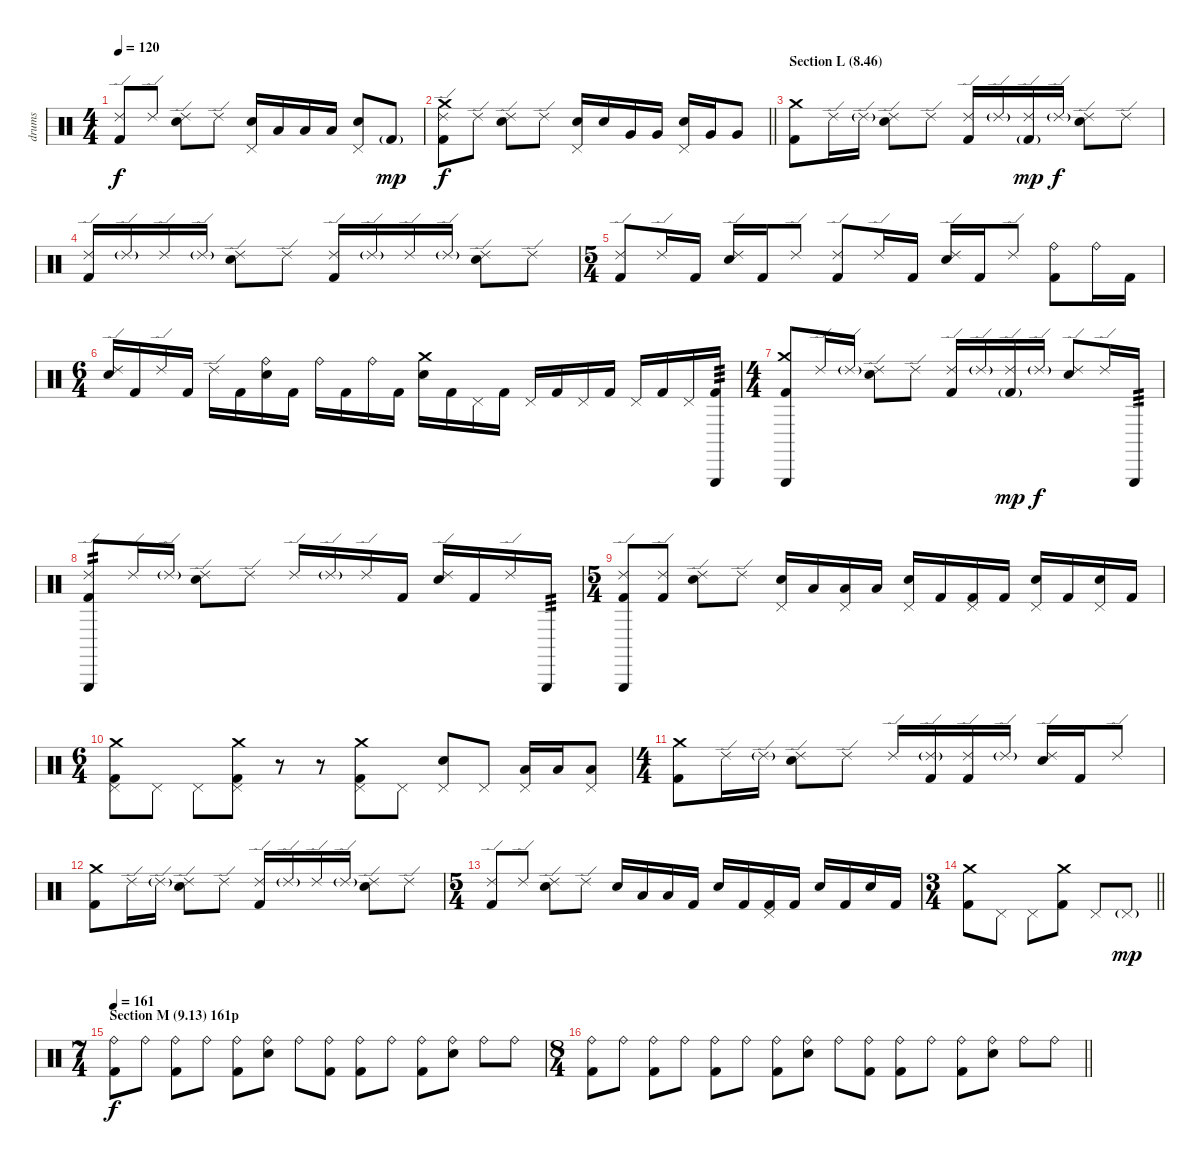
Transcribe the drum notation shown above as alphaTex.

\track ("drums" "drums") {instrument percussion}
\staff {score}
\articulation defaults
\ts (4 4)
\tempo 120
\clef neutral
\ks c
("Ride (edge) 2" "Kick (hit) 2").8{dy f} "Ride (edge) 2".8 ("Ride (edge) 2" "Electric Snare (hit)").8 "Ride (edge) 2".8 ("Pedal Hi-Hat (hit)" "Electric Snare (hit)").16 "Low Tom (hit)".16 "Low Tom (hit)".16 "Low Tom (hit)".16 ("Pedal Hi-Hat (hit)" "Electric Snare (hit)").8 "Kick (hit) 2"{g}.8{dy mp} |
\barLineRight lightlight
("Ride (edge) 2" "Crash medium (hit)" "Kick (hit) 2").8{dy f} "Ride (edge) 2".8 ("Ride (edge) 2" "Electric Snare (hit)").8 "Ride (edge) 2".8 ("Pedal Hi-Hat (hit)" "Electric Snare (hit)").16 "Electric Snare (hit)".16 "Very Low Tom (hit)".16 "Very Low Tom (hit)".16 ("Pedal Hi-Hat (hit)" "Electric Snare (hit)").16 "Very Low Tom (hit)".16 "Very Low Tom (hit)".8 |
\section ("" "Section L (8.46)")
("Crash medium (hit)" "Kick (hit) 2").8 "Ride (edge) 2".16 "Ride (edge) 2"{g}.16 ("Ride (edge) 2" "Electric Snare (hit)").8 "Ride (edge) 2".8 ("Ride (edge) 2" "Kick (hit) 2").16 "Ride (edge) 2"{g}.16 ("Ride (edge) 2" "Kick (hit) 2"{g}).16{dy mp} "Ride (edge) 2"{g}.16{dy f} ("Ride (edge) 2" "Electric Snare (hit)").8 "Ride (edge) 2".8 |
("Ride (edge) 2" "Kick (hit) 2").16 "Ride (edge) 2"{g}.16 "Ride (edge) 2".16 "Ride (edge) 2"{g}.16 ("Ride (edge) 2" "Electric Snare (hit)").8 "Ride (edge) 2".8 ("Ride (edge) 2" "Kick (hit) 2").16 "Ride (edge) 2"{g}.16 "Ride (edge) 2".16 "Ride (edge) 2"{g}.16 ("Ride (edge) 2" "Electric Snare (hit)").8 "Ride (edge) 2".8 |
\ts (5 4)
("Ride (edge) 2" "Kick (hit) 2").8 "Ride (edge) 2".16 "Kick (hit) 2".16 ("Ride (edge) 2" "Electric Snare (hit)").16 "Kick (hit) 2".16 "Ride (edge) 2".8 ("Ride (edge) 2" "Kick (hit) 2").8 "Ride (edge) 2".16 "Kick (hit) 2".16 ("Ride (edge) 2" "Electric Snare (hit)").16 "Kick (hit) 2".16 "Ride (edge) 2".8 ("Ride (bell)" "Kick (hit) 2").8 "Ride (bell)".16 "Kick (hit) 2".16 |
\ts (6 4)
("Ride (edge) 2" "Electric Snare (hit)").16 "Kick (hit) 2".16 "Ride (edge) 2".16 "Kick (hit) 2".16 "Ride (edge) 2".16 "Kick (hit) 2".16 ("Ride (bell)" "Electric Snare (hit)").16 "Kick (hit) 2".16 "Ride (bell)".16 "Kick (hit) 2".16 "Ride (bell)".16 "Kick (hit) 2".16 ("Crash medium (hit)" "Electric Snare (hit)").16 "Kick (hit) 2".16 "Pedal Hi-Hat (hit)".16 "Kick (hit) 2".16 "Pedal Hi-Hat (hit)".16 "Kick (hit) 2".16 "Pedal Hi-Hat (hit)".16 "Kick (hit) 2".16 "Pedal Hi-Hat (hit)".16 "Kick (hit) 2".16 "Pedal Hi-Hat (hit)".16 ("Triangle (hit)" "Kick (hit) 2").16{tp 3} |
\ts (4 4)
("Crash medium (hit)" "Triangle (hit)" "Kick (hit) 2").8 "Ride (edge) 2".16 "Ride (edge) 2"{g}.16 ("Ride (edge) 2" "Electric Snare (hit)").8 "Ride (edge) 2".8 ("Ride (edge) 2" "Kick (hit) 2").16 "Ride (edge) 2"{g}.16 ("Ride (edge) 2" "Kick (hit) 2"{g}).16{dy mp} "Ride (edge) 2"{g}.16{dy f} ("Ride (edge) 2" "Electric Snare (hit)").8 "Ride (edge) 2".16 "Triangle (hit)".16{tp 3} |
("Ride (edge) 2" "Triangle (hit)" "Kick (hit) 2").8{tp 2} "Ride (edge) 2".16 "Ride (edge) 2"{g}.16 ("Ride (edge) 2" "Electric Snare (hit)").8 "Ride (edge) 2".8 "Ride (edge) 2".16 "Ride (edge) 2"{g}.16 "Ride (edge) 2".16 "Kick (hit) 2".16 ("Ride (edge) 2" "Electric Snare (hit)").16 "Kick (hit) 2".16 "Ride (edge) 2".16 "Triangle (hit)".16{tp 3} |
\ts (5 4)
("Ride (edge) 2" "Triangle (hit)" "Kick (hit) 2").8 ("Ride (edge) 2" "Kick (hit) 2").8 ("Ride (edge) 2" "Electric Snare (hit)").8 "Ride (edge) 2".8 ("Pedal Hi-Hat (hit)" "Electric Snare (hit)").16 "Low Tom (hit)".16 ("Pedal Hi-Hat (hit)" "Low Tom (hit)").16 "Low Tom (hit)".16 ("Pedal Hi-Hat (hit)" "Electric Snare (hit)").16 "Kick (hit) 2".16 ("Pedal Hi-Hat (hit)" "Kick (hit) 2").16 "Kick (hit) 2".16 ("Pedal Hi-Hat (hit)" "Electric Snare (hit)").16 "Kick (hit) 2".16 ("Pedal Hi-Hat (hit)" "Electric Snare (hit)").16 "Kick (hit) 2".16 |
\ts (6 4)
("Pedal Hi-Hat (hit)" "Crash medium (hit)" "Kick (hit) 2").8 "Pedal Hi-Hat (hit)".8 "Pedal Hi-Hat (hit)".8 ("Pedal Hi-Hat (hit)" "Crash medium (hit)" "Kick (hit) 2").8 r.8 r.8 ("Pedal Hi-Hat (hit)" "Crash medium (hit)" "Kick (hit) 2").8 "Pedal Hi-Hat (hit)".8 ("Pedal Hi-Hat (hit)" "Electric Snare (hit)").8 "Pedal Hi-Hat (hit)".8 ("Pedal Hi-Hat (hit)" "Low Tom (hit)").16 "Low Tom (hit)".16 ("Pedal Hi-Hat (hit)" "Low Tom (hit)").8 |
\ts (4 4)
("Crash medium (hit)" "Kick (hit) 2").8 "Ride (edge) 2".16 "Ride (edge) 2"{g}.16 ("Ride (edge) 2" "Electric Snare (hit)").8 "Ride (edge) 2".8 "Ride (edge) 2".16 ("Ride (edge) 2"{g} "Kick (hit) 2").16 ("Ride (edge) 2" "Kick (hit) 2").16 "Ride (edge) 2"{g}.16 ("Ride (edge) 2" "Electric Snare (hit)").16 "Kick (hit) 2".16 "Ride (edge) 2".8 |
("Crash medium (hit)" "Kick (hit) 2").8 "Ride (edge) 2".16 "Ride (edge) 2"{g}.16 ("Ride (edge) 2" "Electric Snare (hit)").8 "Ride (edge) 2".8 ("Ride (edge) 2" "Kick (hit) 2").16 "Ride (edge) 2"{g}.16 "Ride (edge) 2".16 "Ride (edge) 2"{g}.16 ("Ride (edge) 2" "Electric Snare (hit)").8 "Ride (edge) 2".8 |
\ts (5 4)
("Ride (edge) 2" "Kick (hit) 2").8 "Ride (edge) 2".8 ("Ride (edge) 2" "Electric Snare (hit)").8 "Ride (edge) 2".8 "Electric Snare (hit)".16 "Low Tom (hit)".16 "Low Tom (hit)".16 "Kick (hit) 2".16 "Electric Snare (hit)".16 "Kick (hit) 2".16 ("Pedal Hi-Hat (hit)" "Kick (hit) 2").16 "Kick (hit) 2".16 "Electric Snare (hit)".16 "Kick (hit) 2".16 "Electric Snare (hit)".16 "Kick (hit) 2".16 |
\ts (3 4)
\barLineRight lightlight
("Crash medium (hit)" "Kick (hit) 2").8 "Pedal Hi-Hat (hit)".8 "Pedal Hi-Hat (hit)".8 ("Crash medium (hit)" "Kick (hit) 2").8 "Pedal Hi-Hat (hit)".8 "Pedal Hi-Hat (hit)"{g}.8{dy mp} |
\ts (7 4)
\section ("" "Section M (9.13) 161p")
\tempo 161
("Ride (bell)" "Kick (hit) 2").8{dy f} "Ride (bell)".8 ("Ride (bell)" "Kick (hit) 2").8 "Ride (bell)".8 ("Ride (bell)" "Kick (hit) 2").8 ("Ride (bell)" "Electric Snare (hit)").8 "Ride (bell)".8 ("Ride (bell)" "Kick (hit) 2").8 ("Ride (bell)" "Kick (hit) 2").8 "Ride (bell)".8 ("Ride (bell)" "Kick (hit) 2").8 ("Ride (bell)" "Electric Snare (hit)").8 "Ride (bell)".8 "Ride (bell)".8 |
\ts (8 4)
\barLineRight lightlight
("Ride (bell)" "Kick (hit) 2").8 "Ride (bell)".8 ("Ride (bell)" "Kick (hit) 2").8 "Ride (bell)".8 ("Ride (bell)" "Kick (hit) 2").8 "Ride (bell)".8 ("Ride (bell)" "Kick (hit) 2").8 ("Ride (bell)" "Electric Snare (hit)").8 "Ride (bell)".8 ("Ride (bell)" "Kick (hit) 2").8 ("Ride (bell)" "Kick (hit) 2").8 "Ride (bell)".8 ("Ride (bell)" "Kick (hit) 2").8 ("Ride (bell)" "Electric Snare (hit)").8 "Ride (bell)".8 "Ride (bell)".8
